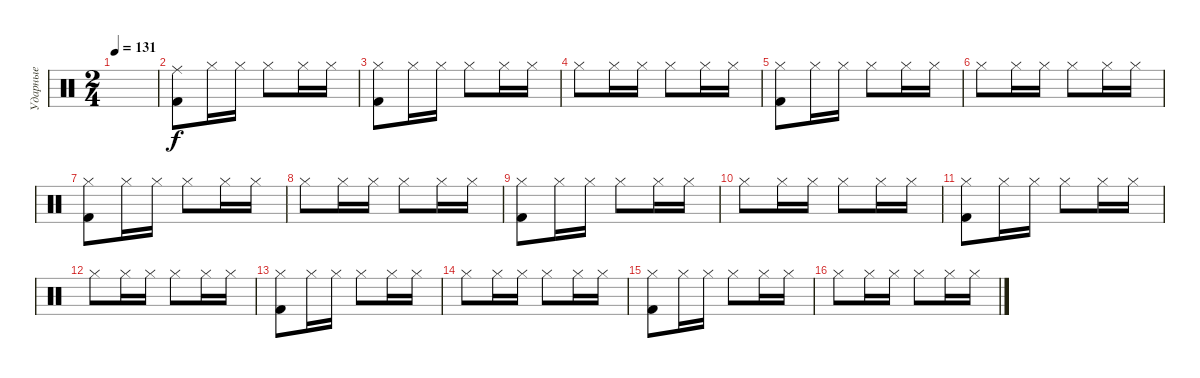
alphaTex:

\track ("Ударные" "Ударные") {instrument percussion}
\staff {score}
\articulation defaults
\ts (2 4)
\tempo 131
\clef neutral
\ks c
|
("Ride (middle)" "Kick (hit) 2").8 "Hi-Hat (closed)".16 "Hi-Hat (closed)".16 "Hi-Hat (closed)".8 "Hi-Hat (closed)".16 "Hi-Hat (closed)".16 |
("Hi-Hat (closed)" "Kick (hit) 2").8 "Hi-Hat (closed)".16 "Hi-Hat (closed)".16 "Hi-Hat (closed)".8 "Hi-Hat (closed)".16 "Hi-Hat (closed)".16 |
"Hi-Hat (closed)".8 "Hi-Hat (closed)".16 "Hi-Hat (closed)".16 "Hi-Hat (closed)".8 "Hi-Hat (closed)".16 "Hi-Hat (closed)".16 |
("Hi-Hat (closed)" "Kick (hit) 2").8 "Hi-Hat (closed)".16 "Hi-Hat (closed)".16 "Hi-Hat (closed)".8 "Hi-Hat (closed)".16 "Hi-Hat (closed)".16 |
"Hi-Hat (closed)".8 "Hi-Hat (closed)".16 "Hi-Hat (closed)".16 "Hi-Hat (closed)".8 "Hi-Hat (closed)".16 "Hi-Hat (closed)".16 |
("Hi-Hat (closed)" "Kick (hit) 2").8 "Hi-Hat (closed)".16 "Hi-Hat (closed)".16 "Hi-Hat (closed)".8 "Hi-Hat (closed)".16 "Hi-Hat (closed)".16 |
"Hi-Hat (closed)".8 "Hi-Hat (closed)".16 "Hi-Hat (closed)".16 "Hi-Hat (closed)".8 "Hi-Hat (closed)".16 "Hi-Hat (closed)".16 |
("Hi-Hat (closed)" "Kick (hit) 2").8 "Hi-Hat (closed)".16 "Hi-Hat (closed)".16 "Hi-Hat (closed)".8 "Hi-Hat (closed)".16 "Hi-Hat (closed)".16 |
"Hi-Hat (closed)".8 "Hi-Hat (closed)".16 "Hi-Hat (closed)".16 "Hi-Hat (closed)".8 "Hi-Hat (closed)".16 "Hi-Hat (closed)".16 |
("Hi-Hat (closed)" "Kick (hit) 2").8 "Hi-Hat (closed)".16 "Hi-Hat (closed)".16 "Hi-Hat (closed)".8 "Hi-Hat (closed)".16 "Hi-Hat (closed)".16 |
"Hi-Hat (closed)".8 "Hi-Hat (closed)".16 "Hi-Hat (closed)".16 "Hi-Hat (closed)".8 "Hi-Hat (closed)".16 "Hi-Hat (closed)".16 |
("Hi-Hat (closed)" "Kick (hit) 2").8 "Hi-Hat (closed)".16 "Hi-Hat (closed)".16 "Hi-Hat (closed)".8 "Hi-Hat (closed)".16 "Hi-Hat (closed)".16 |
"Hi-Hat (closed)".8 "Hi-Hat (closed)".16 "Hi-Hat (closed)".16 "Hi-Hat (closed)".8 "Hi-Hat (closed)".16 "Hi-Hat (closed)".16 |
("Hi-Hat (closed)" "Kick (hit) 2").8 "Hi-Hat (closed)".16 "Hi-Hat (closed)".16 "Hi-Hat (closed)".8 "Hi-Hat (closed)".16 "Hi-Hat (closed)".16 |
"Hi-Hat (closed)".8 "Hi-Hat (closed)".16 "Hi-Hat (closed)".16 "Hi-Hat (closed)".8 "Hi-Hat (closed)".16 "Hi-Hat (closed)".16
